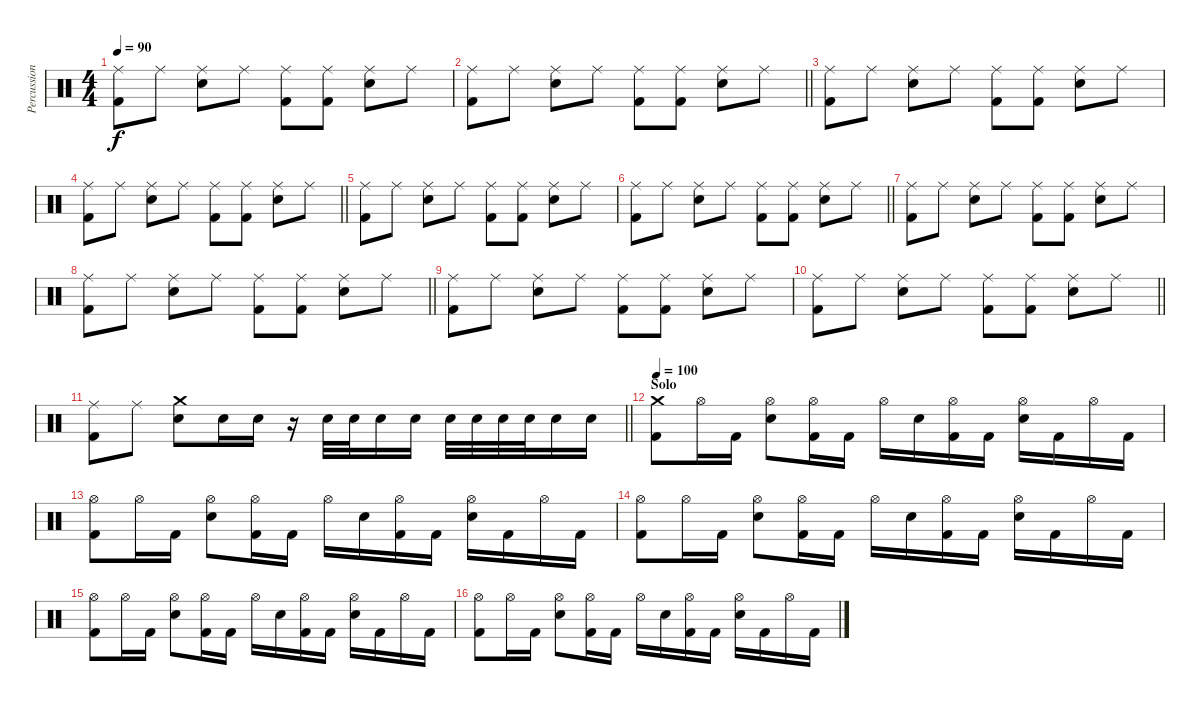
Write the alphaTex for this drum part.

\track ("Percussion" "Percussion") {instrument percussion}
\staff {score}
\articulation defaults
\ts (4 4)
\tempo 90
\clef neutral
\ks c
("Ride (middle)" "Kick (hit) 2").8{dy f} "Ride (middle)".8 ("Ride (middle)" "Electric Snare (hit)").8 "Ride (middle)".8 ("Ride (middle)" "Kick (hit) 2").8 ("Ride (middle)" "Kick (hit) 2").8 ("Ride (middle)" "Electric Snare (hit)").8 "Ride (middle)".8 |
\barLineRight lightlight
("Ride (middle)" "Kick (hit) 2").8 "Ride (middle)".8 ("Ride (middle)" "Electric Snare (hit)").8 "Ride (middle)".8 ("Ride (middle)" "Kick (hit) 2").8 ("Ride (middle)" "Kick (hit) 2").8 ("Ride (middle)" "Electric Snare (hit)").8 "Ride (middle)".8 |
("Ride (middle)" "Kick (hit) 2").8 "Ride (middle)".8 ("Ride (middle)" "Electric Snare (hit)").8 "Ride (middle)".8 ("Ride (middle)" "Kick (hit) 2").8 ("Ride (middle)" "Kick (hit) 2").8 ("Ride (middle)" "Electric Snare (hit)").8 "Ride (middle)".8 |
\barLineRight lightlight
("Ride (middle)" "Kick (hit) 2").8 "Ride (middle)".8 ("Ride (middle)" "Electric Snare (hit)").8 "Ride (middle)".8 ("Ride (middle)" "Kick (hit) 2").8 ("Ride (middle)" "Kick (hit) 2").8 ("Ride (middle)" "Electric Snare (hit)").8 "Ride (middle)".8 |
("Ride (middle)" "Kick (hit) 2").8 "Ride (middle)".8 ("Ride (middle)" "Electric Snare (hit)").8 "Ride (middle)".8 ("Ride (middle)" "Kick (hit) 2").8 ("Ride (middle)" "Kick (hit) 2").8 ("Ride (middle)" "Electric Snare (hit)").8 "Ride (middle)".8 |
\barLineRight lightlight
("Ride (middle)" "Kick (hit) 2").8 "Ride (middle)".8 ("Ride (middle)" "Electric Snare (hit)").8 "Ride (middle)".8 ("Ride (middle)" "Kick (hit) 2").8 ("Ride (middle)" "Kick (hit) 2").8 ("Ride (middle)" "Electric Snare (hit)").8 "Ride (middle)".8 |
("Ride (middle)" "Kick (hit) 2").8 "Ride (middle)".8 ("Ride (middle)" "Electric Snare (hit)").8 "Ride (middle)".8 ("Ride (middle)" "Kick (hit) 2").8 ("Ride (middle)" "Kick (hit) 2").8 ("Ride (middle)" "Electric Snare (hit)").8 "Ride (middle)".8 |
\barLineRight lightlight
("Ride (middle)" "Kick (hit) 2").8 "Ride (middle)".8 ("Ride (middle)" "Electric Snare (hit)").8 "Ride (middle)".8 ("Ride (middle)" "Kick (hit) 2").8 ("Ride (middle)" "Kick (hit) 2").8 ("Ride (middle)" "Electric Snare (hit)").8 "Ride (middle)".8 |
("Ride (middle)" "Kick (hit) 2").8 "Ride (middle)".8 ("Ride (middle)" "Electric Snare (hit)").8 "Ride (middle)".8 ("Ride (middle)" "Kick (hit) 2").8 ("Ride (middle)" "Kick (hit) 2").8 ("Ride (middle)" "Electric Snare (hit)").8 "Ride (middle)".8 |
\barLineRight lightlight
("Ride (middle)" "Kick (hit) 2").8 "Ride (middle)".8 ("Ride (middle)" "Electric Snare (hit)").8 "Ride (middle)".8 ("Ride (middle)" "Kick (hit) 2").8 ("Ride (middle)" "Kick (hit) 2").8 ("Ride (middle)" "Electric Snare (hit)").8 "Ride (middle)".8 |
\barLineRight lightlight
("Ride (middle)" "Kick (hit) 2").8 "Ride (middle)".8 ("Crash medium (hit)" "Electric Snare (hit)").8 "Electric Snare (hit)".16 "Electric Snare (hit)".16 r.16 "Electric Snare (hit)".32 "Electric Snare (hit)".32 "Electric Snare (hit)".16 "Electric Snare (hit)".16 "Electric Snare (hit)".32 "Electric Snare (hit)".32 "Electric Snare (hit)".32 "Electric Snare (hit)".32 "Electric Snare (hit)".16 "Electric Snare (hit)".16 |
\section ("" "Solo")
\tempo 100
("Crash medium (hit)" "Kick (hit) 2").8 "Hi-Hat (open)".16 "Kick (hit) 2".16 ("Hi-Hat (open)" "Electric Snare (hit)").8 ("Hi-Hat (open)" "Kick (hit) 2").16 "Kick (hit) 2".16 "Hi-Hat (open)".16 "Electric Snare (hit)".16 ("Hi-Hat (open)" "Kick (hit) 2").16 "Kick (hit) 2".16 ("Hi-Hat (open)" "Electric Snare (hit)").16 "Kick (hit) 2".16 "Hi-Hat (open)".16 "Kick (hit) 2".16 |
("Hi-Hat (open)" "Kick (hit) 2").8 "Hi-Hat (open)".16 "Kick (hit) 2".16 ("Hi-Hat (open)" "Electric Snare (hit)").8 ("Hi-Hat (open)" "Kick (hit) 2").16 "Kick (hit) 2".16 "Hi-Hat (open)".16 "Electric Snare (hit)".16 ("Hi-Hat (open)" "Kick (hit) 2").16 "Kick (hit) 2".16 ("Hi-Hat (open)" "Electric Snare (hit)").16 "Kick (hit) 2".16 "Hi-Hat (open)".16 "Kick (hit) 2".16 |
("Hi-Hat (open)" "Kick (hit) 2").8 "Hi-Hat (open)".16 "Kick (hit) 2".16 ("Hi-Hat (open)" "Electric Snare (hit)").8 ("Hi-Hat (open)" "Kick (hit) 2").16 "Kick (hit) 2".16 "Hi-Hat (open)".16 "Electric Snare (hit)".16 ("Hi-Hat (open)" "Kick (hit) 2").16 "Kick (hit) 2".16 ("Hi-Hat (open)" "Electric Snare (hit)").16 "Kick (hit) 2".16 "Hi-Hat (open)".16 "Kick (hit) 2".16 |
("Hi-Hat (open)" "Kick (hit) 2").8 "Hi-Hat (open)".16 "Kick (hit) 2".16 ("Hi-Hat (open)" "Electric Snare (hit)").8 ("Hi-Hat (open)" "Kick (hit) 2").16 "Kick (hit) 2".16 "Hi-Hat (open)".16 "Electric Snare (hit)".16 ("Hi-Hat (open)" "Kick (hit) 2").16 "Kick (hit) 2".16 ("Hi-Hat (open)" "Electric Snare (hit)").16 "Kick (hit) 2".16 "Hi-Hat (open)".16 "Kick (hit) 2".16 |
("Hi-Hat (open)" "Kick (hit) 2").8 "Hi-Hat (open)".16 "Kick (hit) 2".16 ("Hi-Hat (open)" "Electric Snare (hit)").8 ("Hi-Hat (open)" "Kick (hit) 2").16 "Kick (hit) 2".16 "Hi-Hat (open)".16 "Electric Snare (hit)".16 ("Hi-Hat (open)" "Kick (hit) 2").16 "Kick (hit) 2".16 ("Hi-Hat (open)" "Electric Snare (hit)").16 "Kick (hit) 2".16 "Hi-Hat (open)".16 "Kick (hit) 2".16
